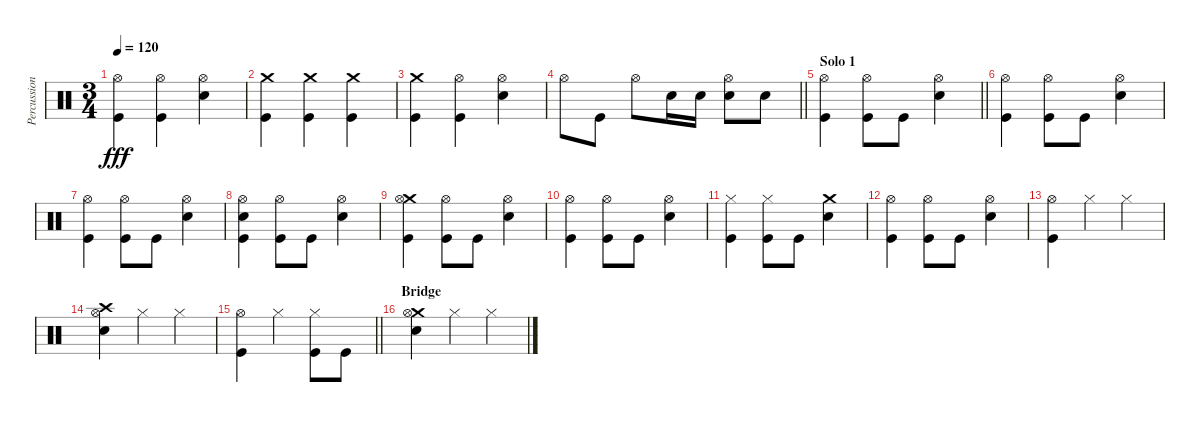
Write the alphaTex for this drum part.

\track ("Percussion" "Percussion") {instrument percussion}
\staff {score}
\articulation defaults
\ts (3 4)
\tempo 120
\clef neutral
\ks c
("Hi-Hat (open)" "Kick (hit)").4{dy fff} ("Hi-Hat (open)" "Kick (hit)").4 ("Hi-Hat (open)" "Electric Snare (hit)").4 |
("Crash medium (hit)" "Kick (hit)").4 ("Crash medium (hit)" "Kick (hit)").4 ("Crash medium (hit)" "Kick (hit)").4 |
("Crash medium (hit)" "Kick (hit)").4 ("Hi-Hat (open)" "Kick (hit)").4 ("Hi-Hat (open)" "Electric Snare (hit)").4 |
\barLineRight lightlight "Hi-Hat (open)".8 "Kick (hit)".8 "Hi-Hat (open)".8 "Electric Snare (hit)".16 "Electric Snare (hit)".16
("Hi-Hat (open)" "Electric Snare (hit)").8 "Electric Snare (hit)".8 |
\section ("" "Solo 1")
\barLineRight lightlight
("Hi-Hat (open)" "Kick (hit)").4 ("Hi-Hat (open)" "Kick (hit)").8 "Kick (hit)".8 ("Hi-Hat (open)" "Electric Snare (hit)").4 |
("Hi-Hat (open)" "Kick (hit)").4 ("Hi-Hat (open)" "Kick (hit)").8 "Kick (hit)".8 ("Hi-Hat (open)" "Electric Snare (hit)").4 |
("Hi-Hat (open)" "Kick (hit)").4 ("Hi-Hat (open)" "Kick (hit)").8 "Kick (hit)".8 ("Hi-Hat (open)" "Electric Snare (hit)").4 |
("Hi-Hat (open)" "Electric Snare (hit)" "Kick (hit)").4 ("Hi-Hat (open)" "Kick (hit)").8 "Kick (hit)".8 ("Hi-Hat (open)" "Electric Snare (hit)").4 |
("Crash medium (hit)" "Hi-Hat (open)" "Kick (hit)").4 ("Hi-Hat (open)" "Kick (hit)").8 "Kick (hit)".8 ("Hi-Hat (open)" "Electric Snare (hit)").4 |
("Hi-Hat (open)" "Kick (hit)").4 ("Hi-Hat (open)" "Kick (hit)").8 "Kick (hit)".8 ("Hi-Hat (open)" "Electric Snare (hit)").4 |
("Hi-Hat (closed)" "Kick (hit)").4 ("Hi-Hat (closed)" "Kick (hit)").8 "Kick (hit)".8 ("Crash medium (hit)" "Electric Snare (hit)").4 |
("Hi-Hat (open)" "Kick (hit)").4 ("Hi-Hat (open)" "Kick (hit)").8 "Kick (hit)".8 ("Hi-Hat (open)" "Electric Snare (hit)").4 |
("Hi-Hat (open)" "Kick (hit)").4 "Hi-Hat (closed)".4 "Hi-Hat (closed)".4 |
("Crash high (hit)" "Hi-Hat (open)" "Electric Snare (hit)").4 "Hi-Hat (closed)".4 "Hi-Hat (closed)".4 |
\barLineRight lightlight
("Hi-Hat (open)" "Kick (hit)").4 "Hi-Hat (closed)".4 ("Hi-Hat (closed)" "Kick (hit)").8 "Kick (hit)".8 |
\section ("" "Bridge")
("Crash medium (hit)" "Hi-Hat (open)" "Electric Snare (hit)").4 "Hi-Hat (closed)".4 "Hi-Hat (closed)".4
